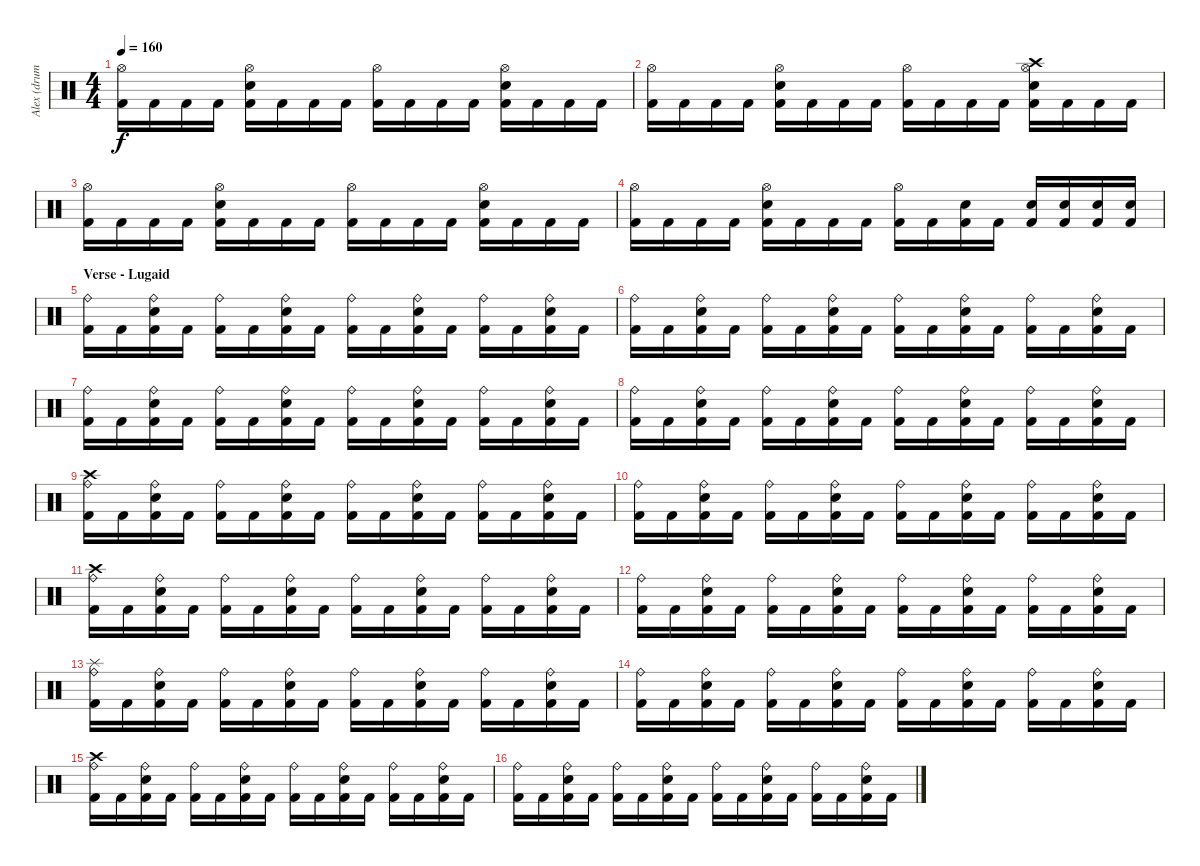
\track ("Alex (drums)" "Alex (drum") {instrument percussion}
\staff {score}
\articulation defaults
\ts (4 4)
\tempo 160
\clef neutral
\ks c
("Hi-Hat (open)" "Kick (hit) 2").16{dy f} "Kick (hit) 2".16 "Kick (hit) 2".16 "Kick (hit) 2".16 ("Hi-Hat (open)" "Snare (hit) 2" "Kick (hit) 2").16 "Kick (hit) 2".16 "Kick (hit) 2".16 "Kick (hit) 2".16 ("Hi-Hat (open)" "Kick (hit) 2").16 "Kick (hit) 2".16 "Kick (hit) 2".16 "Kick (hit) 2".16 ("Hi-Hat (open)" "Snare (hit) 2" "Kick (hit) 2").16 "Kick (hit) 2".16 "Kick (hit) 2".16 "Kick (hit) 2".16 |
("Hi-Hat (open)" "Kick (hit) 2").16 "Kick (hit) 2".16 "Kick (hit) 2".16 "Kick (hit) 2".16 ("Hi-Hat (open)" "Snare (hit) 2" "Kick (hit) 2").16 "Kick (hit) 2".16 "Kick (hit) 2".16 "Kick (hit) 2".16 ("Hi-Hat (open)" "Kick (hit) 2").16 "Kick (hit) 2".16 "Kick (hit) 2".16 "Kick (hit) 2".16 ("Hi-Hat (open)" "Snare (hit) 2" "Kick (hit) 2" "Crash high (hit)").16 "Kick (hit) 2".16 "Kick (hit) 2".16 "Kick (hit) 2".16 |
("Hi-Hat (open)" "Kick (hit) 2").16 "Kick (hit) 2".16 "Kick (hit) 2".16 "Kick (hit) 2".16 ("Hi-Hat (open)" "Snare (hit) 2" "Kick (hit) 2").16 "Kick (hit) 2".16 "Kick (hit) 2".16 "Kick (hit) 2".16 ("Hi-Hat (open)" "Kick (hit) 2").16 "Kick (hit) 2".16 "Kick (hit) 2".16 "Kick (hit) 2".16 ("Hi-Hat (open)" "Snare (hit) 2" "Kick (hit) 2").16 "Kick (hit) 2".16 "Kick (hit) 2".16 "Kick (hit) 2".16 |
("Hi-Hat (open)" "Kick (hit) 2").16 "Kick (hit) 2".16 "Kick (hit) 2".16 "Kick (hit) 2".16 ("Hi-Hat (open)" "Snare (hit) 2" "Kick (hit) 2").16 "Kick (hit) 2".16 "Kick (hit) 2".16 "Kick (hit) 2".16 ("Hi-Hat (open)" "Kick (hit) 2").16 "Kick (hit) 2".16 ("Snare (hit) 2" "Kick (hit) 2").16 "Kick (hit) 2".16 ("Snare (hit) 2" "Kick (hit) 2").16 ("Snare (hit) 2" "Kick (hit) 2").16 ("Snare (hit) 2" "Kick (hit) 2").16 ("Snare (hit) 2" "Kick (hit) 2").16 |
\section ("" "Verse - Lugaid")
("Ride (bell)" "Kick (hit) 2").16 "Kick (hit) 2".16 ("Ride (bell)" "Snare (hit) 2" "Kick (hit) 2").16 "Kick (hit) 2".16 ("Ride (bell)" "Kick (hit) 2").16 "Kick (hit) 2".16 ("Ride (bell)" "Snare (hit) 2" "Kick (hit) 2").16 "Kick (hit) 2".16 ("Ride (bell)" "Kick (hit) 2").16 "Kick (hit) 2".16 ("Ride (bell)" "Snare (hit) 2" "Kick (hit) 2").16 "Kick (hit) 2".16 ("Ride (bell)" "Kick (hit) 2").16 "Kick (hit) 2".16 ("Ride (bell)" "Snare (hit) 2" "Kick (hit) 2").16 "Kick (hit) 2".16 |
("Ride (bell)" "Kick (hit) 2").16 "Kick (hit) 2".16 ("Ride (bell)" "Snare (hit) 2" "Kick (hit) 2").16 "Kick (hit) 2".16 ("Ride (bell)" "Kick (hit) 2").16 "Kick (hit) 2".16 ("Ride (bell)" "Snare (hit) 2" "Kick (hit) 2").16 "Kick (hit) 2".16 ("Ride (bell)" "Kick (hit) 2").16 "Kick (hit) 2".16 ("Ride (bell)" "Snare (hit) 2" "Kick (hit) 2").16 "Kick (hit) 2".16 ("Ride (bell)" "Kick (hit) 2").16 "Kick (hit) 2".16 ("Ride (bell)" "Snare (hit) 2" "Kick (hit) 2").16 "Kick (hit) 2".16 |
("Ride (bell)" "Kick (hit) 2").16 "Kick (hit) 2".16 ("Ride (bell)" "Snare (hit) 2" "Kick (hit) 2").16 "Kick (hit) 2".16 ("Ride (bell)" "Kick (hit) 2").16 "Kick (hit) 2".16 ("Ride (bell)" "Snare (hit) 2" "Kick (hit) 2").16 "Kick (hit) 2".16 ("Ride (bell)" "Kick (hit) 2").16 "Kick (hit) 2".16 ("Ride (bell)" "Snare (hit) 2" "Kick (hit) 2").16 "Kick (hit) 2".16 ("Ride (bell)" "Kick (hit) 2").16 "Kick (hit) 2".16 ("Ride (bell)" "Snare (hit) 2" "Kick (hit) 2").16 "Kick (hit) 2".16 |
("Ride (bell)" "Kick (hit) 2").16 "Kick (hit) 2".16 ("Ride (bell)" "Snare (hit) 2" "Kick (hit) 2").16 "Kick (hit) 2".16 ("Ride (bell)" "Kick (hit) 2").16 "Kick (hit) 2".16 ("Ride (bell)" "Snare (hit) 2" "Kick (hit) 2").16 "Kick (hit) 2".16 ("Ride (bell)" "Kick (hit) 2").16 "Kick (hit) 2".16 ("Ride (bell)" "Snare (hit) 2" "Kick (hit) 2").16 "Kick (hit) 2".16 ("Ride (bell)" "Kick (hit) 2").16 "Kick (hit) 2".16 ("Ride (bell)" "Snare (hit) 2" "Kick (hit) 2").16 "Kick (hit) 2".16 |
("Ride (bell)" "Kick (hit) 2" "Crash high (hit)").16 "Kick (hit) 2".16 ("Ride (bell)" "Snare (hit) 2" "Kick (hit) 2").16 "Kick (hit) 2".16 ("Ride (bell)" "Kick (hit) 2").16 "Kick (hit) 2".16 ("Ride (bell)" "Snare (hit) 2" "Kick (hit) 2").16 "Kick (hit) 2".16 ("Ride (bell)" "Kick (hit) 2").16 "Kick (hit) 2".16 ("Ride (bell)" "Snare (hit) 2" "Kick (hit) 2").16 "Kick (hit) 2".16 ("Ride (bell)" "Kick (hit) 2").16 "Kick (hit) 2".16 ("Ride (bell)" "Snare (hit) 2" "Kick (hit) 2").16 "Kick (hit) 2".16 |
("Ride (bell)" "Kick (hit) 2").16 "Kick (hit) 2".16 ("Ride (bell)" "Snare (hit) 2" "Kick (hit) 2").16 "Kick (hit) 2".16 ("Ride (bell)" "Kick (hit) 2").16 "Kick (hit) 2".16 ("Ride (bell)" "Snare (hit) 2" "Kick (hit) 2").16 "Kick (hit) 2".16 ("Ride (bell)" "Kick (hit) 2").16 "Kick (hit) 2".16 ("Ride (bell)" "Snare (hit) 2" "Kick (hit) 2").16 "Kick (hit) 2".16 ("Ride (bell)" "Kick (hit) 2").16 "Kick (hit) 2".16 ("Ride (bell)" "Snare (hit) 2" "Kick (hit) 2").16 "Kick (hit) 2".16 |
("Ride (bell)" "Kick (hit) 2" "Crash high (hit)").16 "Kick (hit) 2".16 ("Ride (bell)" "Snare (hit) 2" "Kick (hit) 2").16 "Kick (hit) 2".16 ("Ride (bell)" "Kick (hit) 2").16 "Kick (hit) 2".16 ("Ride (bell)" "Snare (hit) 2" "Kick (hit) 2").16 "Kick (hit) 2".16 ("Ride (bell)" "Kick (hit) 2").16 "Kick (hit) 2".16 ("Ride (bell)" "Snare (hit) 2" "Kick (hit) 2").16 "Kick (hit) 2".16 ("Ride (bell)" "Kick (hit) 2").16 "Kick (hit) 2".16 ("Ride (bell)" "Snare (hit) 2" "Kick (hit) 2").16 "Kick (hit) 2".16 |
("Ride (bell)" "Kick (hit) 2").16 "Kick (hit) 2".16 ("Ride (bell)" "Snare (hit) 2" "Kick (hit) 2").16 "Kick (hit) 2".16 ("Ride (bell)" "Kick (hit) 2").16 "Kick (hit) 2".16 ("Ride (bell)" "Snare (hit) 2" "Kick (hit) 2").16 "Kick (hit) 2".16 ("Ride (bell)" "Kick (hit) 2").16 "Kick (hit) 2".16 ("Ride (bell)" "Snare (hit) 2" "Kick (hit) 2").16 "Kick (hit) 2".16 ("Ride (bell)" "Kick (hit) 2").16 "Kick (hit) 2".16 ("Ride (bell)" "Snare (hit) 2" "Kick (hit) 2").16 "Kick (hit) 2".16 |
("Ride (bell)" "Kick (hit) 2" "Splash (hit)").16 "Kick (hit) 2".16 ("Ride (bell)" "Snare (hit) 2" "Kick (hit) 2").16 "Kick (hit) 2".16 ("Ride (bell)" "Kick (hit) 2").16 "Kick (hit) 2".16 ("Ride (bell)" "Snare (hit) 2" "Kick (hit) 2").16 "Kick (hit) 2".16 ("Ride (bell)" "Kick (hit) 2").16 "Kick (hit) 2".16 ("Ride (bell)" "Snare (hit) 2" "Kick (hit) 2").16 "Kick (hit) 2".16 ("Ride (bell)" "Kick (hit) 2").16 "Kick (hit) 2".16 ("Ride (bell)" "Snare (hit) 2" "Kick (hit) 2").16 "Kick (hit) 2".16 |
("Ride (bell)" "Kick (hit) 2").16 "Kick (hit) 2".16 ("Ride (bell)" "Snare (hit) 2" "Kick (hit) 2").16 "Kick (hit) 2".16 ("Ride (bell)" "Kick (hit) 2").16 "Kick (hit) 2".16 ("Ride (bell)" "Snare (hit) 2" "Kick (hit) 2").16 "Kick (hit) 2".16 ("Ride (bell)" "Kick (hit) 2").16 "Kick (hit) 2".16 ("Ride (bell)" "Snare (hit) 2" "Kick (hit) 2").16 "Kick (hit) 2".16 ("Ride (bell)" "Kick (hit) 2").16 "Kick (hit) 2".16 ("Ride (bell)" "Snare (hit) 2" "Kick (hit) 2").16 "Kick (hit) 2".16 |
("Ride (bell)" "Kick (hit) 2" "Crash high (hit)").16 "Kick (hit) 2".16 ("Ride (bell)" "Snare (hit) 2" "Kick (hit) 2").16 "Kick (hit) 2".16 ("Ride (bell)" "Kick (hit) 2").16 "Kick (hit) 2".16 ("Ride (bell)" "Snare (hit) 2" "Kick (hit) 2").16 "Kick (hit) 2".16 ("Ride (bell)" "Kick (hit) 2").16 "Kick (hit) 2".16 ("Ride (bell)" "Snare (hit) 2" "Kick (hit) 2").16 "Kick (hit) 2".16 ("Ride (bell)" "Kick (hit) 2").16 "Kick (hit) 2".16 ("Ride (bell)" "Snare (hit) 2" "Kick (hit) 2").16 "Kick (hit) 2".16 |
("Ride (bell)" "Kick (hit) 2").16 "Kick (hit) 2".16 ("Ride (bell)" "Snare (hit) 2" "Kick (hit) 2").16 "Kick (hit) 2".16 ("Ride (bell)" "Kick (hit) 2").16 "Kick (hit) 2".16 ("Ride (bell)" "Snare (hit) 2" "Kick (hit) 2").16 "Kick (hit) 2".16 ("Ride (bell)" "Kick (hit) 2").16 "Kick (hit) 2".16 ("Ride (bell)" "Snare (hit) 2" "Kick (hit) 2").16 "Kick (hit) 2".16 ("Ride (bell)" "Kick (hit) 2").16 "Kick (hit) 2".16 ("Ride (bell)" "Snare (hit) 2" "Kick (hit) 2").16 "Kick (hit) 2".16
